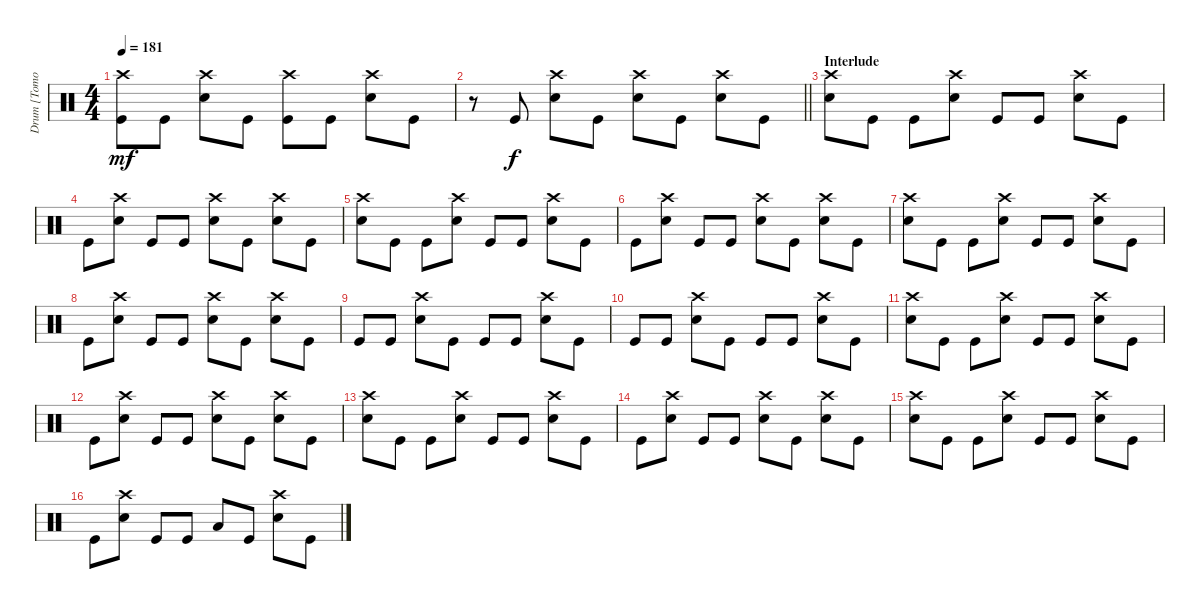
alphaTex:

\track ("Drum [Tomoya]" "Drum [Tomo") {instrument percussion}
\staff {score}
\articulation defaults
\ts (4 4)
\tempo 181
\clef neutral
\ks c
("Kick (hit)" "Crash high (hit)").8{dy mf} "Kick (hit)".8 ("Snare (hit) 2" "Crash high (hit)").8 "Kick (hit)".8 ("Kick (hit)" "Crash high (hit)").8 "Kick (hit)".8 ("Snare (hit) 2" "Crash high (hit)").8 "Kick (hit)".8 |
\barLineRight lightlight
r.8 "Kick (hit)".8{dy f} ("Snare (hit) 2" "Crash high (hit)").8 "Kick (hit)".8 ("Snare (hit) 2" "Crash high (hit)").8 "Kick (hit)".8 ("Snare (hit) 2" "Crash high (hit)").8 "Kick (hit)".8 |
\section ("" "Interlude")
("Snare (hit) 2" "Crash high (hit)").8 "Kick (hit)".8 "Kick (hit)".8 ("Snare (hit) 2" "Crash high (hit)").8 "Kick (hit)".8 "Kick (hit)".8 ("Snare (hit) 2" "Crash high (hit)").8 "Kick (hit)".8 |
"Kick (hit)".8 ("Snare (hit) 2" "Crash high (hit)").8 "Kick (hit)".8 "Kick (hit)".8 ("Snare (hit) 2" "Crash high (hit)").8 "Kick (hit)".8 ("Snare (hit) 2" "Crash high (hit)").8 "Kick (hit)".8 |
("Snare (hit) 2" "Crash high (hit)").8 "Kick (hit)".8 "Kick (hit)".8 ("Snare (hit) 2" "Crash high (hit)").8 "Kick (hit)".8 "Kick (hit)".8 ("Snare (hit) 2" "Crash high (hit)").8 "Kick (hit)".8 |
"Kick (hit)".8 ("Snare (hit) 2" "Crash high (hit)").8 "Kick (hit)".8 "Kick (hit)".8 ("Snare (hit) 2" "Crash high (hit)").8 "Kick (hit)".8 ("Snare (hit) 2" "Crash high (hit)").8 "Kick (hit)".8 |
("Snare (hit) 2" "Crash high (hit)").8 "Kick (hit)".8 "Kick (hit)".8 ("Snare (hit) 2" "Crash high (hit)").8 "Kick (hit)".8 "Kick (hit)".8 ("Snare (hit) 2" "Crash high (hit)").8 "Kick (hit)".8 |
"Kick (hit)".8 ("Snare (hit) 2" "Crash high (hit)").8 "Kick (hit)".8 "Kick (hit)".8 ("Snare (hit) 2" "Crash high (hit)").8 "Kick (hit)".8 ("Snare (hit) 2" "Crash high (hit)").8 "Kick (hit)".8 |
"Kick (hit)".8 "Kick (hit)".8 ("Snare (hit) 2" "Crash high (hit)").8 "Kick (hit)".8 "Kick (hit)".8 "Kick (hit)".8 ("Snare (hit) 2" "Crash high (hit)").8 "Kick (hit)".8 |
"Kick (hit)".8 "Kick (hit)".8 ("Snare (hit) 2" "Crash high (hit)").8 "Kick (hit)".8 "Kick (hit)".8 "Kick (hit)".8 ("Snare (hit) 2" "Crash high (hit)").8 "Kick (hit)".8 |
("Snare (hit) 2" "Crash high (hit)").8 "Kick (hit)".8 "Kick (hit)".8 ("Snare (hit) 2" "Crash high (hit)").8 "Kick (hit)".8 "Kick (hit)".8 ("Snare (hit) 2" "Crash high (hit)").8 "Kick (hit)".8 |
"Kick (hit)".8 ("Snare (hit) 2" "Crash high (hit)").8 "Kick (hit)".8 "Kick (hit)".8 ("Snare (hit) 2" "Crash high (hit)").8 "Kick (hit)".8 ("Snare (hit) 2" "Crash high (hit)").8 "Kick (hit)".8 |
("Snare (hit) 2" "Crash high (hit)").8 "Kick (hit)".8 "Kick (hit)".8 ("Snare (hit) 2" "Crash high (hit)").8 "Kick (hit)".8 "Kick (hit)".8 ("Snare (hit) 2" "Crash high (hit)").8 "Kick (hit)".8 |
"Kick (hit)".8 ("Snare (hit) 2" "Crash high (hit)").8 "Kick (hit)".8 "Kick (hit)".8 ("Snare (hit) 2" "Crash high (hit)").8 "Kick (hit)".8 ("Snare (hit) 2" "Crash high (hit)").8 "Kick (hit)".8 |
("Snare (hit) 2" "Crash high (hit)").8 "Kick (hit)".8 "Kick (hit)".8 ("Snare (hit) 2" "Crash high (hit)").8 "Kick (hit)".8 "Kick (hit)".8 ("Snare (hit) 2" "Crash high (hit)").8 "Kick (hit)".8 |
"Kick (hit)".8 ("Snare (hit) 2" "Crash high (hit)").8 "Kick (hit)".8 "Kick (hit)".8 "Low Tom (hit)".8 "Kick (hit)".8 ("Crash high (hit)" "Snare (hit) 2").8 "Kick (hit)".8
